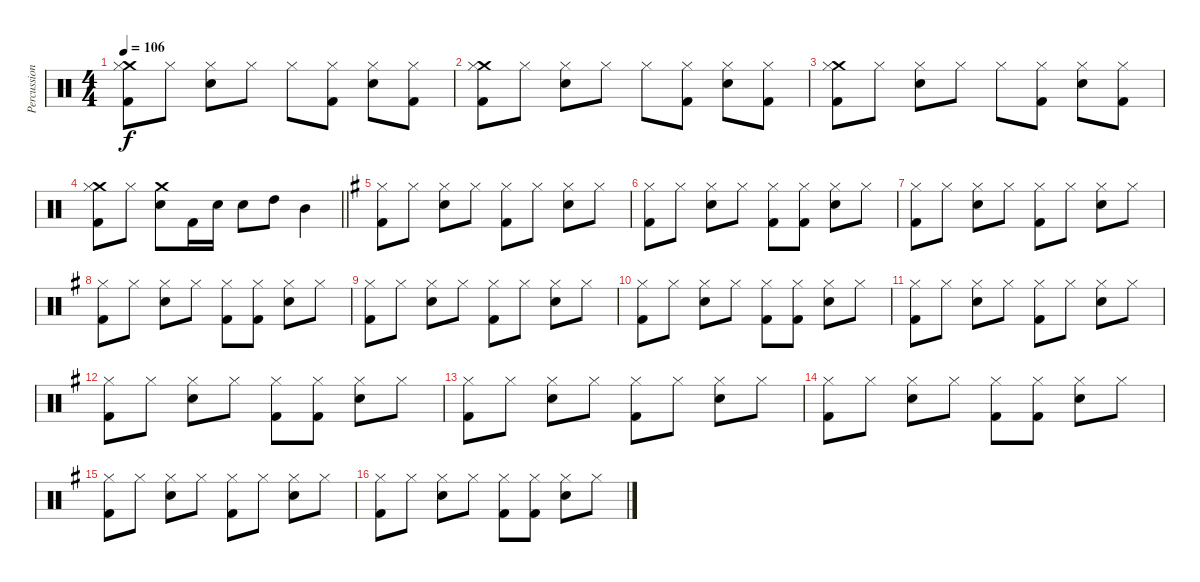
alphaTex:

\track ("Percussion" "Percussion") {instrument percussion}
\staff {score}
\articulation defaults
\ts (4 4)
\tempo 106
\clef neutral
\ks c
("Crash medium (hit)" "Hi-Hat (closed)" "Kick (hit) 2").8{dy f} "Hi-Hat (closed)".8 ("Hi-Hat (closed)" "Electric Snare (hit)").8 "Hi-Hat (closed)".8 "Hi-Hat (closed)".8 ("Hi-Hat (closed)" "Kick (hit) 2").8 ("Hi-Hat (closed)" "Electric Snare (hit)").8 ("Hi-Hat (closed)" "Kick (hit) 2").8 |
("Crash medium (hit)" "Hi-Hat (closed)" "Kick (hit) 2").8 "Hi-Hat (closed)".8 ("Hi-Hat (closed)" "Electric Snare (hit)").8 "Hi-Hat (closed)".8 "Hi-Hat (closed)".8 ("Hi-Hat (closed)" "Kick (hit) 2").8 ("Hi-Hat (closed)" "Electric Snare (hit)").8 ("Hi-Hat (closed)" "Kick (hit) 2").8 |
("Crash medium (hit)" "Hi-Hat (closed)" "Kick (hit) 2").8 "Hi-Hat (closed)".8 ("Hi-Hat (closed)" "Electric Snare (hit)").8 "Hi-Hat (closed)".8 "Hi-Hat (closed)".8 ("Hi-Hat (closed)" "Kick (hit) 2").8 ("Hi-Hat (closed)" "Electric Snare (hit)").8 ("Hi-Hat (closed)" "Kick (hit) 2").8 |
\barLineRight lightlight
("Crash medium (hit)" "Hi-Hat (closed)" "Kick (hit) 2").8 "Hi-Hat (closed)".8 ("Crash medium (hit)" "Electric Snare (hit)").8 "Kick (hit) 2".16 "Electric Snare (hit)".16 "Electric Snare (hit)".8 "High Tom (hit)".8 "Mid Tom (hit)".4 |
\ks g
("Hi-Hat (closed)" "Kick (hit) 2").8 "Hi-Hat (closed)".8 ("Hi-Hat (closed)" "Electric Snare (hit)").8 "Hi-Hat (closed)".8 ("Hi-Hat (closed)" "Kick (hit) 2").8 "Hi-Hat (closed)".8 ("Hi-Hat (closed)" "Electric Snare (hit)").8 "Hi-Hat (closed)".8 |
("Hi-Hat (closed)" "Kick (hit) 2").8 "Hi-Hat (closed)".8 ("Hi-Hat (closed)" "Electric Snare (hit)").8 "Hi-Hat (closed)".8 ("Hi-Hat (closed)" "Kick (hit) 2").8 ("Hi-Hat (closed)" "Kick (hit) 2").8 ("Hi-Hat (closed)" "Electric Snare (hit)").8 "Hi-Hat (closed)".8 |
("Hi-Hat (closed)" "Kick (hit) 2").8 "Hi-Hat (closed)".8 ("Hi-Hat (closed)" "Electric Snare (hit)").8 "Hi-Hat (closed)".8 ("Hi-Hat (closed)" "Kick (hit) 2").8 "Hi-Hat (closed)".8 ("Hi-Hat (closed)" "Electric Snare (hit)").8 "Hi-Hat (closed)".8 |
("Hi-Hat (closed)" "Kick (hit) 2").8 "Hi-Hat (closed)".8 ("Hi-Hat (closed)" "Electric Snare (hit)").8 "Hi-Hat (closed)".8 ("Hi-Hat (closed)" "Kick (hit) 2").8 ("Hi-Hat (closed)" "Kick (hit) 2").8 ("Hi-Hat (closed)" "Electric Snare (hit)").8 "Hi-Hat (closed)".8 |
("Hi-Hat (closed)" "Kick (hit) 2").8 "Hi-Hat (closed)".8 ("Hi-Hat (closed)" "Electric Snare (hit)").8 "Hi-Hat (closed)".8 ("Hi-Hat (closed)" "Kick (hit) 2").8 "Hi-Hat (closed)".8 ("Hi-Hat (closed)" "Electric Snare (hit)").8 "Hi-Hat (closed)".8 |
("Hi-Hat (closed)" "Kick (hit) 2").8 "Hi-Hat (closed)".8 ("Hi-Hat (closed)" "Electric Snare (hit)").8 "Hi-Hat (closed)".8 ("Hi-Hat (closed)" "Kick (hit) 2").8 ("Hi-Hat (closed)" "Kick (hit) 2").8 ("Hi-Hat (closed)" "Electric Snare (hit)").8 "Hi-Hat (closed)".8 |
("Hi-Hat (closed)" "Kick (hit) 2").8 "Hi-Hat (closed)".8 ("Hi-Hat (closed)" "Electric Snare (hit)").8 "Hi-Hat (closed)".8 ("Hi-Hat (closed)" "Kick (hit) 2").8 "Hi-Hat (closed)".8 ("Hi-Hat (closed)" "Electric Snare (hit)").8 "Hi-Hat (closed)".8 |
("Hi-Hat (closed)" "Kick (hit) 2").8 "Hi-Hat (closed)".8 ("Hi-Hat (closed)" "Electric Snare (hit)").8 "Hi-Hat (closed)".8 ("Hi-Hat (closed)" "Kick (hit) 2").8 ("Hi-Hat (closed)" "Kick (hit) 2").8 ("Hi-Hat (closed)" "Electric Snare (hit)").8 "Hi-Hat (closed)".8 |
("Hi-Hat (closed)" "Kick (hit) 2").8 "Hi-Hat (closed)".8 ("Hi-Hat (closed)" "Electric Snare (hit)").8 "Hi-Hat (closed)".8 ("Hi-Hat (closed)" "Kick (hit) 2").8 "Hi-Hat (closed)".8 ("Hi-Hat (closed)" "Electric Snare (hit)").8 "Hi-Hat (closed)".8 |
("Hi-Hat (closed)" "Kick (hit) 2").8 "Hi-Hat (closed)".8 ("Hi-Hat (closed)" "Electric Snare (hit)").8 "Hi-Hat (closed)".8 ("Hi-Hat (closed)" "Kick (hit) 2").8 ("Hi-Hat (closed)" "Kick (hit) 2").8 ("Hi-Hat (closed)" "Electric Snare (hit)").8 "Hi-Hat (closed)".8 |
("Hi-Hat (closed)" "Kick (hit) 2").8 "Hi-Hat (closed)".8 ("Hi-Hat (closed)" "Electric Snare (hit)").8 "Hi-Hat (closed)".8 ("Hi-Hat (closed)" "Kick (hit) 2").8 "Hi-Hat (closed)".8 ("Hi-Hat (closed)" "Electric Snare (hit)").8 "Hi-Hat (closed)".8 |
("Hi-Hat (closed)" "Kick (hit) 2").8 "Hi-Hat (closed)".8 ("Hi-Hat (closed)" "Electric Snare (hit)").8 "Hi-Hat (closed)".8 ("Hi-Hat (closed)" "Kick (hit) 2").8 ("Hi-Hat (closed)" "Kick (hit) 2").8 ("Hi-Hat (closed)" "Electric Snare (hit)").8 "Hi-Hat (closed)".8
